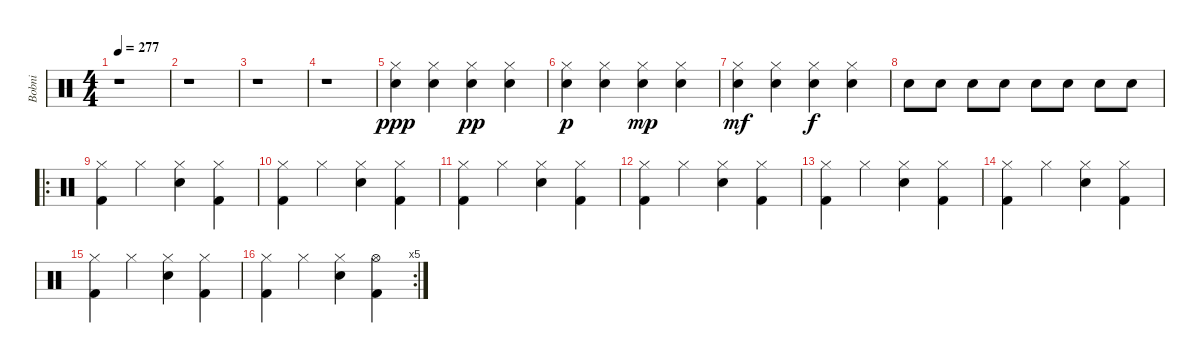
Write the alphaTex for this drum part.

\track ("Bobni" "Bobni") {instrument percussion}
\staff {score}
\articulation defaults
\ts (4 4)
\tempo 277
\clef neutral
\ks c
r.1{dy ppp} |
r.1 |
r.1 |
r.1 |
("Snare (hit) 2" "Hi-Hat (closed)").4 ("Snare (hit) 2" "Hi-Hat (closed)").4 ("Snare (hit) 2" "Hi-Hat (closed)").4{dy pp} ("Snare (hit) 2" "Hi-Hat (closed)").4 |
("Snare (hit) 2" "Hi-Hat (closed)").4{dy p} ("Snare (hit) 2" "Hi-Hat (closed)").4 ("Snare (hit) 2" "Hi-Hat (closed)").4{dy mp} ("Snare (hit) 2" "Hi-Hat (closed)").4 |
("Snare (hit) 2" "Hi-Hat (closed)").4{dy mf} ("Snare (hit) 2" "Hi-Hat (closed)").4 ("Snare (hit) 2" "Hi-Hat (closed)").4{dy f} ("Snare (hit) 2" "Hi-Hat (closed)").4 |
"Snare (hit) 2".8 "Snare (hit) 2".8 "Snare (hit) 2".8 "Snare (hit) 2".8 "Snare (hit) 2".8 "Snare (hit) 2".8 "Snare (hit) 2".8 "Snare (hit) 2".8 |
\ro
("Hi-Hat (closed)" "Kick (hit) 2").4 "Hi-Hat (closed)".4 ("Hi-Hat (closed)" "Snare (hit) 2").4 ("Hi-Hat (closed)" "Kick (hit) 2").4 |
("Hi-Hat (closed)" "Kick (hit) 2").4 "Hi-Hat (closed)".4 ("Hi-Hat (closed)" "Snare (hit) 2").4 ("Hi-Hat (closed)" "Kick (hit) 2").4 |
("Hi-Hat (closed)" "Kick (hit) 2").4 "Hi-Hat (closed)".4 ("Hi-Hat (closed)" "Snare (hit) 2").4 ("Hi-Hat (closed)" "Kick (hit) 2").4 |
("Hi-Hat (closed)" "Kick (hit) 2").4 "Hi-Hat (closed)".4 ("Hi-Hat (closed)" "Snare (hit) 2").4 ("Hi-Hat (closed)" "Kick (hit) 2").4 |
("Hi-Hat (closed)" "Kick (hit) 2").4 "Hi-Hat (closed)".4 ("Hi-Hat (closed)" "Snare (hit) 2").4 ("Hi-Hat (closed)" "Kick (hit) 2").4 |
("Hi-Hat (closed)" "Kick (hit) 2").4 "Hi-Hat (closed)".4 ("Hi-Hat (closed)" "Snare (hit) 2").4 ("Hi-Hat (closed)" "Kick (hit) 2").4 |
("Hi-Hat (closed)" "Kick (hit) 2").4 "Hi-Hat (closed)".4 ("Hi-Hat (closed)" "Snare (hit) 2").4 ("Hi-Hat (closed)" "Kick (hit) 2").4 |
\rc 5
("Hi-Hat (closed)" "Kick (hit) 2").4 "Hi-Hat (closed)".4 ("Hi-Hat (closed)" "Snare (hit) 2").4 ("Hi-Hat (open)" "Kick (hit) 2").4
